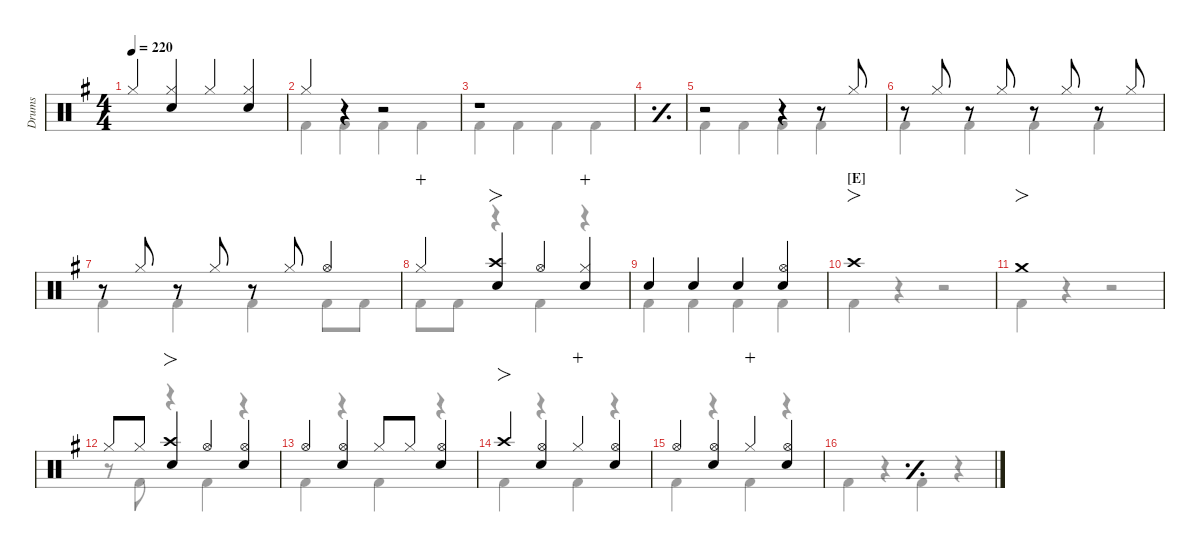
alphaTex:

\hideDynamics
\bracketExtendMode nobrackets
\multiBarRest
\otherSystemsTrackNameOrientation horizontal
\track ("Drums" "Drums") {defaultSystemsLayout 4 multiBarRest instrument percussion}
\staff {score}
\articulation defaults
\voice
\ts (4 4)
\tempo 220
\clef neutral
\scale
0.97879
\ks g "Hi-Hat (closed)"{acc forcenatural}.4{dy f beam Up}
("Hi-Hat (closed)"{acc forcenatural} "Snare (hit) 2"{acc forcenatural}).4{beam Up} "Hi-Hat (closed)"{acc forcenatural}.4{beam Up} ("Hi-Hat (closed)"{acc forcenatural} "Snare (hit) 2"{acc forcenatural}).4{beam Up} |
\scale
1.06363 "Hi-Hat (closed)"{acc forcenatural}.4{beam Up} r.4{beam Up} r.2{beam Up} |
\scale
0.97879 r.1{beam Up} |
\simile simple
\scale
0.97879 |
\simile none
\scale
0.97879 r.2{beam Up} r.4{beam Up} r.8{beam Up} "Hi-Hat (closed)"{acc forcenatural}.8{beam Up} |
\scale
1.05921 r.8{beam Up} "Hi-Hat (closed)"{acc forcenatural}.8{beam Up} r.8{beam Up} "Hi-Hat (closed)"{acc forcenatural}.8{beam Up} r.8{beam Up} "Hi-Hat (closed)"{acc forcenatural}.8{beam Up} r.8{beam Up} "Hi-Hat (closed)"{acc forcenatural}.8{beam Up} |
\scale
0.974368 r.8{beam Up} "Hi-Hat (closed)"{acc forcenatural}.8{beam Up} r.8{beam Up} "Hi-Hat (closed)"{acc forcenatural}.8{beam Up} r.8{beam Up} "Hi-Hat (closed)"{acc forcenatural}.8{beam Up} "Hi-Hat (open)"{acc forcenatural}.4{beam Up} |
\scale
0.974368 "Hi-Hat (closed)"{acc forcenatural}.4{wahc beam Up} ("Crash high (hit)"{acc forcenatural} "Snare (hit) 2"{acc forcenatural}).4{fo beam Up} "Hi-Hat (open)"{acc forcenatural}.4{beam Up} ("Hi-Hat (closed)"{acc forcenatural} "Snare (hit) 2"{acc forcenatural}).4{wahc beam Up} |
\scale
0.992053 "Snare (hit) 2"{acc forcenatural}.4{beam Up} "Snare (hit) 2"{acc forcenatural}.4{beam Up} "Snare (hit) 2"{acc forcenatural}.4{beam Up} ("Snare (hit) 2"{acc forcenatural} "Hi-Hat (open)"{acc forcenatural}).4{beam Up} |
\section ("E" "")
\scale
1.06363 "Crash high (hit)"{acc forcenatural}.1{fo beam Up} |
\scale
0.97879 "Crash medium (hit)"{acc forcenatural}.1{fo beam Up} |
\scale
0.97879 "Hi-Hat (closed)"{acc forcenatural}.8{beam Up} "Hi-Hat (closed)"{acc forcenatural}.8{dy mf beam Up} ("Crash high (hit)"{acc forcenatural} "Snare (hit) 2"{acc forcenatural}).4{fo dy f beam Up} "Hi-Hat (open)"{acc forcenatural}.4{beam Up} ("Snare (hit) 2"{acc forcenatural} "Hi-Hat (open)"{acc forcenatural}).4{beam Up} |
\scale
0.97879 "Hi-Hat (open)"{acc forcenatural}.4{beam Up} ("Snare (hit) 2"{acc forcenatural} "Hi-Hat (open)"{acc forcenatural}).4{beam Up} "Hi-Hat (closed)"{acc forcenatural}.8{beam Up} "Hi-Hat (closed)"{acc forcenatural}.8{beam Up} ("Hi-Hat (open)"{acc forcenatural} "Snare (hit) 2"{acc forcenatural}).4{beam Up} |
\scale
1.06363 "Crash high (hit)"{acc forcenatural}.4{fo beam Up} ("Hi-Hat (open)"{acc forcenatural} "Snare (hit) 2"{acc forcenatural}).4{beam Up} "Hi-Hat (closed)"{acc forcenatural}.4{wahc beam Up} ("Snare (hit) 2"{acc forcenatural} "Hi-Hat (open)"{acc forcenatural}).4{beam Up} |
\scale
0.97879 "Hi-Hat (open)"{acc forcenatural}.4{beam Up} ("Snare (hit) 2"{acc forcenatural} "Hi-Hat (open)"{acc forcenatural}).4{beam Up} "Hi-Hat (closed)"{acc forcenatural}.4{wahc beam Up} ("Snare (hit) 2"{acc forcenatural} "Hi-Hat (open)"{acc forcenatural}).4{beam Up} |
\simile simple
\scale
0.97879
\voice
\clef neutral
\ottava regular
\simile none
\scale
0.97879
\ks g "Kick (hit) 2"{acc forcenatural}.4{dy f beam Down}
r.4{beam Down} "Kick (hit) 2"{acc forcenatural}.4{beam Down} r.4{beam Down} |
\scale
1.06363 "Kick (hit) 2"{acc forcenatural}.4{beam Down} "Kick (hit) 2"{acc forcenatural}.4{beam Down} "Kick (hit) 2"{acc forcenatural}.4{beam Down} "Kick (hit) 2"{acc forcenatural}.4{beam Down} |
\scale
0.97879 "Kick (hit) 2"{acc forcenatural}.4{beam Down} "Kick (hit) 2"{acc forcenatural}.4{beam Down} "Kick (hit) 2"{acc forcenatural}.4{beam Down} "Kick (hit) 2"{acc forcenatural}.4{beam Down} |
\simile simple
\scale
0.97879 |
\simile none
\scale
0.97879 "Kick (hit) 2"{acc forcenatural}.4{beam Down} "Kick (hit) 2"{acc forcenatural}.4{beam Down} "Kick (hit) 2"{acc forcenatural}.4{beam Down} "Kick (hit) 2"{acc forcenatural}.4{beam Down} |
\scale
1.05921 "Kick (hit) 2"{acc forcenatural}.4{beam Down} "Kick (hit) 2"{acc forcenatural}.4{beam Down} "Kick (hit) 2"{acc forcenatural}.4{beam Down} "Kick (hit) 2"{acc forcenatural}.4{beam Down} |
\scale
0.974368 "Kick (hit) 2"{acc forcenatural}.4{beam Down} "Kick (hit) 2"{acc forcenatural}.4{beam Down} "Kick (hit) 2"{acc forcenatural}.4{beam Down} "Kick (hit) 2"{acc forcenatural}.8{beam Down} "Kick (hit) 2"{acc forcenatural}.8{beam Down} |
\scale
0.974368 "Kick (hit) 2"{acc forcenatural}.8{beam Down} "Kick (hit) 2"{acc forcenatural}.8{beam Down} r.4{beam Down} "Kick (hit) 2"{acc forcenatural}.4{beam Down} r.4{beam Down} |
\scale
0.992053 "Kick (hit) 2"{acc forcenatural}.4{beam Down} "Kick (hit) 2"{acc forcenatural}.4{beam Down} "Kick (hit) 2"{acc forcenatural}.4{beam Down} "Kick (hit) 2"{acc forcenatural}.4{beam Down} |
\scale
1.06363 "Kick (hit) 2"{acc forcenatural}.4{beam Down} r.4{beam Down} r.2{beam Down} |
\scale
0.97879 "Kick (hit) 2"{acc forcenatural}.4{beam Down} r.4{beam Down} r.2{beam Down} |
\scale
0.97879 r.8{beam Down} "Kick (hit) 2"{acc forcenatural}.8{beam Down} r.4{beam Down} "Kick (hit) 2"{acc forcenatural}.4{beam Down} r.4{beam Down} |
\scale
0.97879 "Kick (hit) 2"{acc forcenatural}.4{beam Down} r.4{beam Down} "Kick (hit) 2"{acc forcenatural}.4{beam Down} r.4{beam Down} |
\scale
1.06363 "Kick (hit) 2"{acc forcenatural}.4{beam Down} r.4{beam Down} "Kick (hit) 2"{acc forcenatural}.4{beam Down} r.4{beam Down} |
\scale
0.97879 "Kick (hit) 2"{acc forcenatural}.4{beam Down} r.4{beam Down} "Kick (hit) 2"{acc forcenatural}.4{beam Down} r.4{beam Down} |
\simile simple
\scale
0.97879
